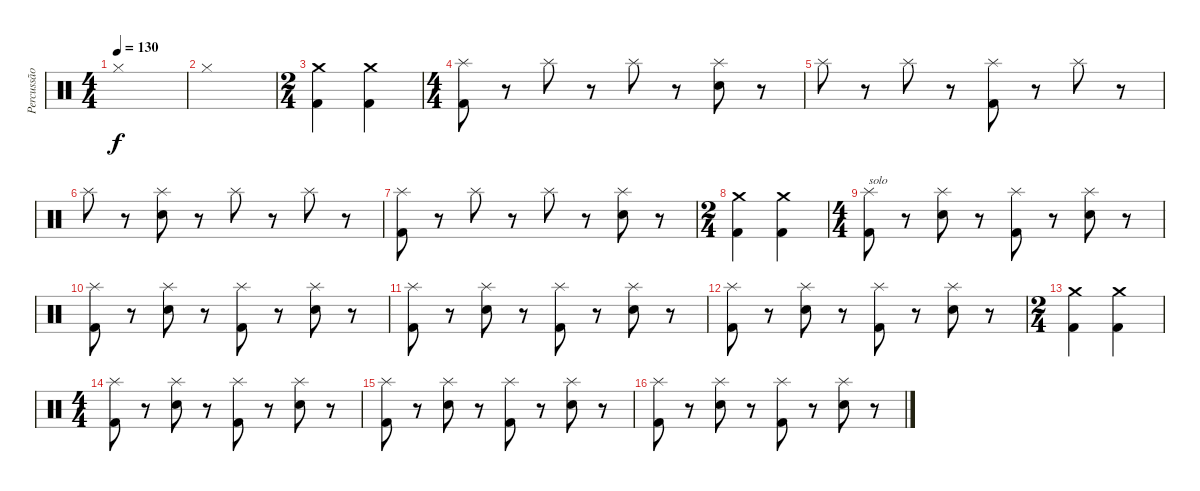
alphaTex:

\track ("Percussão" "Percussão") {instrument percussion}
\staff {score}
\articulation defaults
\ts (4 4)
\tempo 130
\clef neutral
\ks c "Hi-Hat (closed)".1{dy f}
|
"Hi-Hat (closed)".1 |
\ts (2 4)
("Crash medium (hit)" "Kick (hit) 2").4 ("Crash medium (hit)" "Kick (hit) 2").4 |
\ts (4 4)
("Splash (hit)" "Kick (hit) 2").8 r.8 "Splash (hit)".8 r.8 "Splash (hit)".8 r.8 ("Splash (hit)" "Snare (hit) 2").8 r.8 |
"Splash (hit)".8 r.8 "Splash (hit)".8 r.8 ("Splash (hit)" "Kick (hit) 2").8 r.8 "Splash (hit)".8 r.8 |
"Splash (hit)".8 r.8 ("Splash (hit)" "Snare (hit) 2").8 r.8 "Splash (hit)".8 r.8 "Splash (hit)".8 r.8 |
("Splash (hit)" "Kick (hit) 2").8 r.8 "Splash (hit)".8 r.8 "Splash (hit)".8 r.8 ("Splash (hit)" "Snare (hit) 2").8 r.8 |
\ts (2 4)
("Crash medium (hit)" "Kick (hit) 2").4 ("Crash medium (hit)" "Kick (hit) 2").4 |
\ts (4 4)
("Splash (hit)" "Kick (hit) 2").8{txt "solo"} r.8 ("Splash (hit)" "Snare (hit) 2").8 r.8 ("Splash (hit)" "Kick (hit) 2").8 r.8 ("Splash (hit)" "Snare (hit) 2").8 r.8 |
("Splash (hit)" "Kick (hit) 2").8 r.8 ("Splash (hit)" "Snare (hit) 2").8 r.8 ("Splash (hit)" "Kick (hit) 2").8 r.8 ("Splash (hit)" "Snare (hit) 2").8 r.8 |
("Splash (hit)" "Kick (hit) 2").8 r.8 ("Splash (hit)" "Snare (hit) 2").8 r.8 ("Splash (hit)" "Kick (hit) 2").8 r.8 ("Splash (hit)" "Snare (hit) 2").8 r.8 |
("Splash (hit)" "Kick (hit) 2").8 r.8 ("Splash (hit)" "Snare (hit) 2").8 r.8 ("Splash (hit)" "Kick (hit) 2").8 r.8 ("Splash (hit)" "Snare (hit) 2").8 r.8 |
\ts (2 4)
("Crash medium (hit)" "Kick (hit) 2").4 ("Crash medium (hit)" "Kick (hit) 2").4 |
\ts (4 4)
("Splash (hit)" "Kick (hit) 2").8 r.8 ("Splash (hit)" "Snare (hit) 2").8 r.8 ("Splash (hit)" "Kick (hit) 2").8 r.8 ("Splash (hit)" "Snare (hit) 2").8 r.8 |
("Splash (hit)" "Kick (hit) 2").8 r.8 ("Splash (hit)" "Snare (hit) 2").8 r.8 ("Splash (hit)" "Kick (hit) 2").8 r.8 ("Splash (hit)" "Snare (hit) 2").8 r.8 |
("Splash (hit)" "Kick (hit) 2").8 r.8 ("Splash (hit)" "Snare (hit) 2").8 r.8 ("Splash (hit)" "Kick (hit) 2").8 r.8 ("Splash (hit)" "Snare (hit) 2").8 r.8
